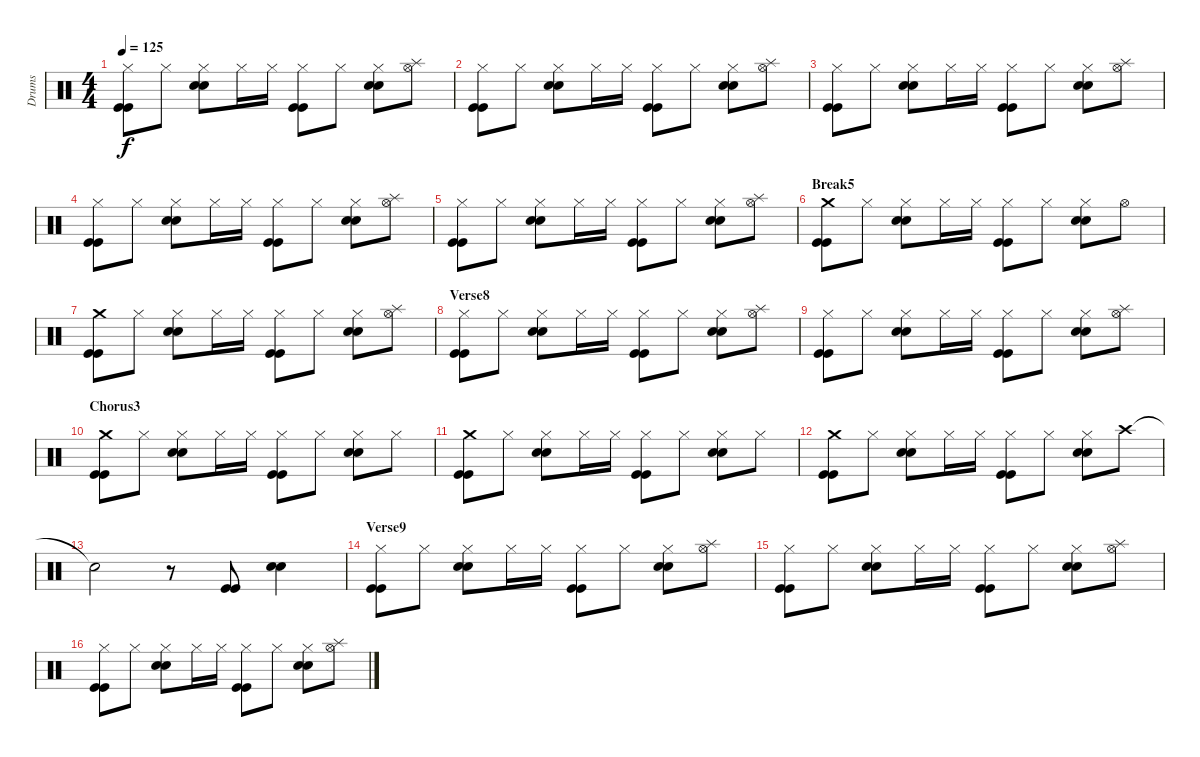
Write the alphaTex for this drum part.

\track ("Drums" "Drums") {instrument percussion}
\staff {score}
\articulation defaults
\ts (4 4)
\tempo 125
\clef neutral
\ks c
("Hi-Hat (closed)" "Kick (hit)" "Kick (hit)").8{dy f} "Hi-Hat (closed)".8 ("Hi-Hat (closed)" "Electric Snare (hit)" "Electric Snare (hit)").8 "Hi-Hat (closed)".16 "Hi-Hat (closed)".16 ("Hi-Hat (closed)" "Kick (hit)" "Kick (hit)").8 "Hi-Hat (closed)".8 ("Hi-Hat (closed)" "Electric Snare (hit)" "Electric Snare (hit)").8 ("Hi-Hat (open)" "Splash (hit)").8 |
("Hi-Hat (closed)" "Kick (hit)" "Kick (hit)").8 "Hi-Hat (closed)".8 ("Hi-Hat (closed)" "Electric Snare (hit)" "Electric Snare (hit)").8 "Hi-Hat (closed)".16 "Hi-Hat (closed)".16 ("Hi-Hat (closed)" "Kick (hit)" "Kick (hit)").8 "Hi-Hat (closed)".8 ("Hi-Hat (closed)" "Electric Snare (hit)" "Electric Snare (hit)").8 ("Hi-Hat (open)" "Splash (hit)").8 |
("Hi-Hat (closed)" "Kick (hit)" "Kick (hit)").8 "Hi-Hat (closed)".8 ("Hi-Hat (closed)" "Electric Snare (hit)" "Electric Snare (hit)").8 "Hi-Hat (closed)".16 "Hi-Hat (closed)".16 ("Hi-Hat (closed)" "Kick (hit)" "Kick (hit)").8 "Hi-Hat (closed)".8 ("Hi-Hat (closed)" "Electric Snare (hit)" "Electric Snare (hit)").8 ("Hi-Hat (open)" "Splash (hit)").8 |
("Hi-Hat (closed)" "Kick (hit)" "Kick (hit)").8 "Hi-Hat (closed)".8 ("Hi-Hat (closed)" "Electric Snare (hit)" "Electric Snare (hit)").8 "Hi-Hat (closed)".16 "Hi-Hat (closed)".16 ("Hi-Hat (closed)" "Kick (hit)" "Kick (hit)").8 "Hi-Hat (closed)".8 ("Hi-Hat (closed)" "Electric Snare (hit)" "Electric Snare (hit)").8 ("Hi-Hat (open)" "Splash (hit)").8 |
("Hi-Hat (closed)" "Kick (hit)" "Kick (hit)").8 "Hi-Hat (closed)".8 ("Hi-Hat (closed)" "Electric Snare (hit)" "Electric Snare (hit)").8 "Hi-Hat (closed)".16 "Hi-Hat (closed)".16 ("Hi-Hat (closed)" "Kick (hit)" "Kick (hit)").8 "Hi-Hat (closed)".8 ("Hi-Hat (closed)" "Electric Snare (hit)" "Electric Snare (hit)").8 ("Hi-Hat (open)" "Splash (hit)").8 |
\section ("" "Break5")
("Crash medium (hit)" "Kick (hit)" "Kick (hit)").8 "Hi-Hat (closed)".8 ("Hi-Hat (closed)" "Electric Snare (hit)" "Electric Snare (hit)").8 "Hi-Hat (closed)".16 "Hi-Hat (closed)".16 ("Hi-Hat (closed)" "Kick (hit)" "Kick (hit)").8 "Hi-Hat (closed)".8 ("Hi-Hat (closed)" "Electric Snare (hit)" "Electric Snare (hit)").8 "Hi-Hat (open)".8 |
("Crash medium (hit)" "Kick (hit)" "Kick (hit)").8 "Hi-Hat (closed)".8 ("Hi-Hat (closed)" "Electric Snare (hit)" "Electric Snare (hit)").8 "Hi-Hat (closed)".16 "Hi-Hat (closed)".16 ("Hi-Hat (closed)" "Kick (hit)" "Kick (hit)").8 "Hi-Hat (closed)".8 ("Hi-Hat (closed)" "Electric Snare (hit)" "Electric Snare (hit)").8 ("Hi-Hat (open)" "Splash (hit)").8 |
\section ("" "Verse8")
("Hi-Hat (closed)" "Kick (hit)" "Kick (hit)").8 "Hi-Hat (closed)".8 ("Hi-Hat (closed)" "Electric Snare (hit)" "Electric Snare (hit)").8 "Hi-Hat (closed)".16 "Hi-Hat (closed)".16 ("Hi-Hat (closed)" "Kick (hit)" "Kick (hit)").8 "Hi-Hat (closed)".8 ("Hi-Hat (closed)" "Electric Snare (hit)" "Electric Snare (hit)").8 ("Hi-Hat (open)" "Splash (hit)").8 |
("Hi-Hat (closed)" "Kick (hit)" "Kick (hit)").8 "Hi-Hat (closed)".8 ("Hi-Hat (closed)" "Electric Snare (hit)" "Electric Snare (hit)").8 "Hi-Hat (closed)".16 "Hi-Hat (closed)".16 ("Hi-Hat (closed)" "Kick (hit)" "Kick (hit)").8 "Hi-Hat (closed)".8 ("Hi-Hat (closed)" "Electric Snare (hit)" "Electric Snare (hit)").8 ("Hi-Hat (open)" "Splash (hit)").8 |
\section ("" "Chorus3")
("Crash medium (hit)" "Kick (hit)" "Kick (hit)").8 "Hi-Hat (closed)".8 ("Hi-Hat (closed)" "Electric Snare (hit)" "Electric Snare (hit)").8 "Hi-Hat (closed)".16 "Hi-Hat (closed)".16 ("Hi-Hat (closed)" "Kick (hit)" "Kick (hit)").8 "Hi-Hat (closed)".8 ("Hi-Hat (closed)" "Electric Snare (hit)" "Electric Snare (hit)").8 "Hi-Hat (closed)".8 |
("Crash medium (hit)" "Kick (hit)" "Kick (hit)").8 "Hi-Hat (closed)".8 ("Hi-Hat (closed)" "Electric Snare (hit)" "Electric Snare (hit)").8 "Hi-Hat (closed)".16 "Hi-Hat (closed)".16 ("Hi-Hat (closed)" "Kick (hit)" "Kick (hit)").8 "Hi-Hat (closed)".8 ("Hi-Hat (closed)" "Electric Snare (hit)" "Electric Snare (hit)").8 "Hi-Hat (closed)".8 |
("Crash medium (hit)" "Kick (hit)" "Kick (hit)").8 "Hi-Hat (closed)".8 ("Hi-Hat (closed)" "Electric Snare (hit)" "Electric Snare (hit)").8 "Hi-Hat (closed)".16 "Hi-Hat (closed)".16 ("Hi-Hat (closed)" "Kick (hit)" "Kick (hit)").8 "Hi-Hat (closed)".8 ("Hi-Hat (closed)" "Electric Snare (hit)" "Electric Snare (hit)").8 "Crash high (hit)".8 |
"Snare (hit)"{t}.2 r.8 ("Kick (hit)" "Kick (hit)").8 ("Electric Snare (hit)" "Electric Snare (hit)").4 |
\section ("" "Verse9")
("Hi-Hat (closed)" "Kick (hit)" "Kick (hit)").8 "Hi-Hat (closed)".8 ("Hi-Hat (closed)" "Electric Snare (hit)" "Electric Snare (hit)").8 "Hi-Hat (closed)".16 "Hi-Hat (closed)".16 ("Hi-Hat (closed)" "Kick (hit)" "Kick (hit)").8 "Hi-Hat (closed)".8 ("Hi-Hat (closed)" "Electric Snare (hit)" "Electric Snare (hit)").8 ("Hi-Hat (open)" "Splash (hit)").8 |
("Hi-Hat (closed)" "Kick (hit)" "Kick (hit)").8 "Hi-Hat (closed)".8 ("Hi-Hat (closed)" "Electric Snare (hit)" "Electric Snare (hit)").8 "Hi-Hat (closed)".16 "Hi-Hat (closed)".16 ("Hi-Hat (closed)" "Kick (hit)" "Kick (hit)").8 "Hi-Hat (closed)".8 ("Hi-Hat (closed)" "Electric Snare (hit)" "Electric Snare (hit)").8 ("Hi-Hat (open)" "Splash (hit)").8 |
("Hi-Hat (closed)" "Kick (hit)" "Kick (hit)").8 "Hi-Hat (closed)".8 ("Hi-Hat (closed)" "Electric Snare (hit)" "Electric Snare (hit)").8 "Hi-Hat (closed)".16 "Hi-Hat (closed)".16 ("Hi-Hat (closed)" "Kick (hit)" "Kick (hit)").8 "Hi-Hat (closed)".8 ("Hi-Hat (closed)" "Electric Snare (hit)" "Electric Snare (hit)").8 ("Hi-Hat (open)" "Splash (hit)").8
